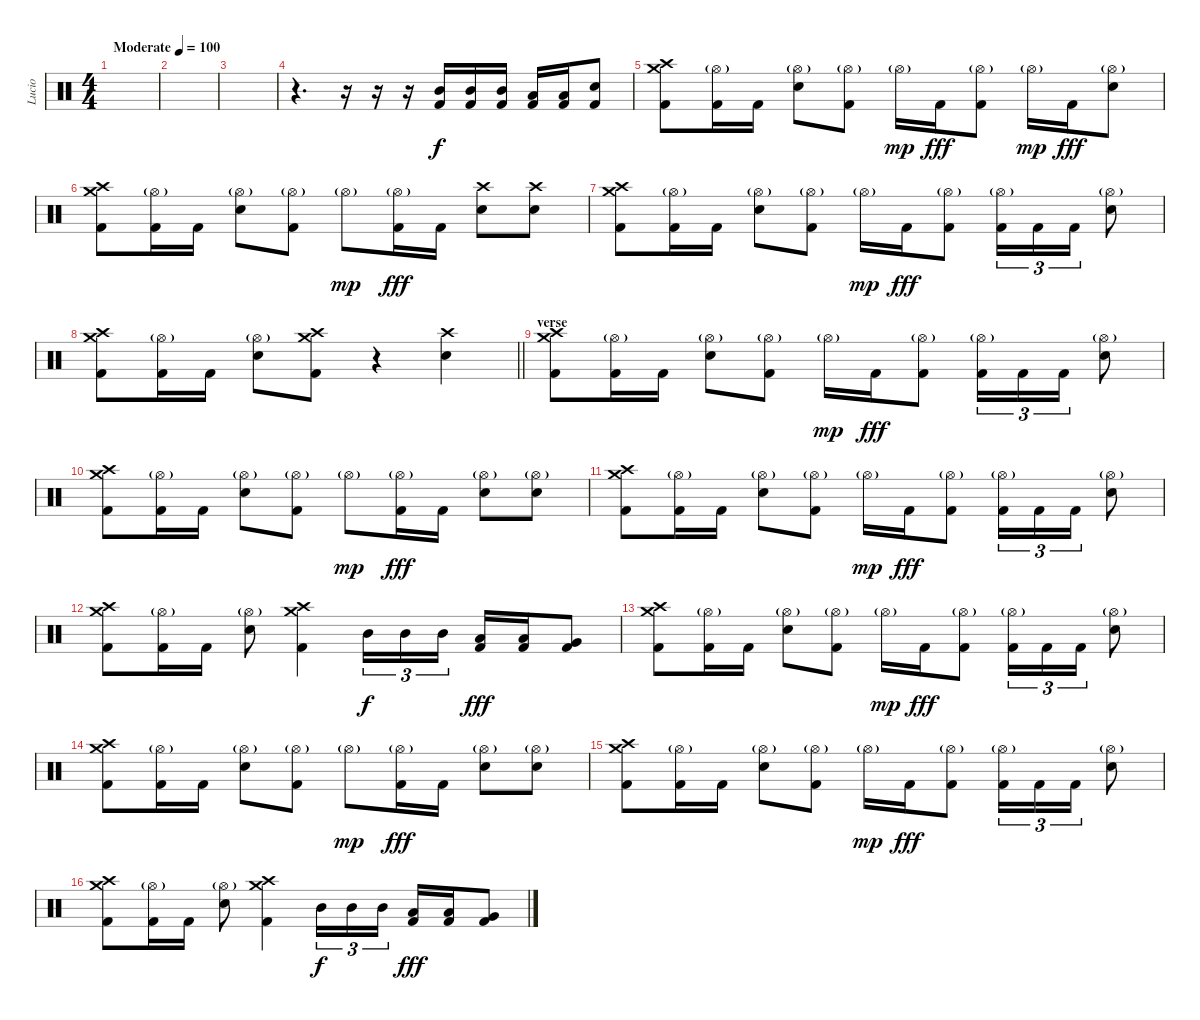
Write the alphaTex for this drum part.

\track ("Lucio" "Lucio") {instrument percussion}
\staff {score}
\articulation defaults
\ts (4 4)
\tempo (100 "Moderate")
\clef neutral
\ks c
|
|
|
r.4{d} r.16 r.16 r.16 ("Mid Tom (hit)" "Kick (hit) 2").16 ("Mid Tom (hit)" "Kick (hit) 2").16 ("Mid Tom (hit)" "Kick (hit) 2").16 ("Low Tom (hit)" "Kick (hit) 2").16 ("Low Tom (hit)" "Kick (hit) 2").16 ("Electric Snare (hit)" "Kick (hit) 2").8 |
("Crash medium (hit)" "Crash high (hit)" "Kick (hit) 2").8 ("Hi-Hat (open)"{g} "Kick (hit) 2").16 "Kick (hit) 2".16 ("Hi-Hat (open)"{g} "Electric Snare (hit)").8 ("Hi-Hat (open)"{g} "Kick (hit) 2").8 "Hi-Hat (open)"{g}.16{dy mp} "Kick (hit) 2".16{dy fff} ("Hi-Hat (open)"{g} "Kick (hit) 2").8 "Hi-Hat (open)"{g}.16{dy mp} "Kick (hit) 2".16{dy fff} ("Hi-Hat (open)"{g} "Electric Snare (hit)").8 |
("Crash medium (hit)" "Crash high (hit)" "Kick (hit) 2").8 ("Hi-Hat (open)"{g} "Kick (hit) 2").16 "Kick (hit) 2".16 ("Hi-Hat (open)"{g} "Electric Snare (hit)").8 ("Hi-Hat (open)"{g} "Kick (hit) 2").8 "Hi-Hat (open)"{g}.8{dy mp} ("Hi-Hat (open)"{g} "Kick (hit) 2").16{dy fff} "Kick (hit) 2".16 ("Crash high (hit)" "Electric Snare (hit)").8 ("Crash high (hit)" "Electric Snare (hit)").8 |
("Crash medium (hit)" "Crash high (hit)" "Kick (hit) 2").8 ("Hi-Hat (open)"{g} "Kick (hit) 2").16 "Kick (hit) 2".16 ("Hi-Hat (open)"{g} "Electric Snare (hit)").8 ("Hi-Hat (open)"{g} "Kick (hit) 2").8 "Hi-Hat (open)"{g}.16{dy mp} "Kick (hit) 2".16{dy fff} ("Hi-Hat (open)"{g} "Kick (hit) 2").8 ("Hi-Hat (open)"{g} "Kick (hit) 2").16{tu (3 2)} "Kick (hit) 2".16{tu (3 2)} "Kick (hit) 2".16{tu (3 2)} ("Hi-Hat (open)"{g} "Electric Snare (hit)").8 |
\barLineRight lightlight
("Crash medium (hit)" "Crash high (hit)" "Kick (hit) 2").8 ("Hi-Hat (open)"{g} "Kick (hit) 2").16 "Kick (hit) 2".16 ("Hi-Hat (open)"{g} "Electric Snare (hit)").8 ("Crash medium (hit)" "Crash high (hit)" "Kick (hit) 2").8 r.4 ("Crash high (hit)" "Electric Snare (hit)").4 |
\section ("" "verse")
("Crash medium (hit)" "Crash high (hit)" "Kick (hit) 2").8 ("Hi-Hat (open)"{g} "Kick (hit) 2").16 "Kick (hit) 2".16 ("Hi-Hat (open)"{g} "Electric Snare (hit)").8 ("Hi-Hat (open)"{g} "Kick (hit) 2").8 "Hi-Hat (open)"{g}.16{dy mp} "Kick (hit) 2".16{dy fff} ("Hi-Hat (open)"{g} "Kick (hit) 2").8 ("Hi-Hat (open)"{g} "Kick (hit) 2").16{tu (3 2)} "Kick (hit) 2".16{tu (3 2)} "Kick (hit) 2".16{tu (3 2)} ("Hi-Hat (open)"{g} "Electric Snare (hit)").8 |
("Crash medium (hit)" "Crash high (hit)" "Kick (hit) 2").8 ("Hi-Hat (open)"{g} "Kick (hit) 2").16 "Kick (hit) 2".16 ("Hi-Hat (open)"{g} "Electric Snare (hit)").8 ("Hi-Hat (open)"{g} "Kick (hit) 2").8 "Hi-Hat (open)"{g}.8{dy mp} ("Hi-Hat (open)"{g} "Kick (hit) 2").16{dy fff} "Kick (hit) 2".16 ("Hi-Hat (open)"{g} "Electric Snare (hit)").8 ("Hi-Hat (open)"{g} "Electric Snare (hit)").8 |
("Crash medium (hit)" "Crash high (hit)" "Kick (hit) 2").8 ("Hi-Hat (open)"{g} "Kick (hit) 2").16 "Kick (hit) 2".16 ("Hi-Hat (open)"{g} "Electric Snare (hit)").8 ("Hi-Hat (open)"{g} "Kick (hit) 2").8 "Hi-Hat (open)"{g}.16{dy mp} "Kick (hit) 2".16{dy fff} ("Hi-Hat (open)"{g} "Kick (hit) 2").8 ("Hi-Hat (open)"{g} "Kick (hit) 2").16{tu (3 2)} "Kick (hit) 2".16{tu (3 2)} "Kick (hit) 2".16{tu (3 2)} ("Hi-Hat (open)"{g} "Electric Snare (hit)").8 |
("Crash medium (hit)" "Crash high (hit)" "Kick (hit) 2").8 ("Hi-Hat (open)"{g} "Kick (hit) 2").16 "Kick (hit) 2".16 ("Hi-Hat (open)"{g} "Electric Snare (hit)").8 ("Crash medium (hit)" "Crash high (hit)" "Kick (hit) 2").4 "Mid Tom (hit)".16{tu (3 2) dy f} "Mid Tom (hit)".16{tu (3 2)} "Mid Tom (hit)".16{tu (3 2)} ("Low Tom (hit)" "Kick (hit) 2").16{dy fff} ("Low Tom (hit)" "Kick (hit) 2").16 ("Very Low Tom (hit)" "Kick (hit) 2").8 |
("Crash medium (hit)" "Crash high (hit)" "Kick (hit) 2").8 ("Hi-Hat (open)"{g} "Kick (hit) 2").16 "Kick (hit) 2".16 ("Hi-Hat (open)"{g} "Electric Snare (hit)").8 ("Hi-Hat (open)"{g} "Kick (hit) 2").8 "Hi-Hat (open)"{g}.16{dy mp} "Kick (hit) 2".16{dy fff} ("Hi-Hat (open)"{g} "Kick (hit) 2").8 ("Hi-Hat (open)"{g} "Kick (hit) 2").16{tu (3 2)} "Kick (hit) 2".16{tu (3 2)} "Kick (hit) 2".16{tu (3 2)} ("Hi-Hat (open)"{g} "Electric Snare (hit)").8 |
("Crash medium (hit)" "Crash high (hit)" "Kick (hit) 2").8 ("Hi-Hat (open)"{g} "Kick (hit) 2").16 "Kick (hit) 2".16 ("Hi-Hat (open)"{g} "Electric Snare (hit)").8 ("Hi-Hat (open)"{g} "Kick (hit) 2").8 "Hi-Hat (open)"{g}.8{dy mp} ("Hi-Hat (open)"{g} "Kick (hit) 2").16{dy fff} "Kick (hit) 2".16 ("Hi-Hat (open)"{g} "Electric Snare (hit)").8 ("Hi-Hat (open)"{g} "Electric Snare (hit)").8 |
("Crash medium (hit)" "Crash high (hit)" "Kick (hit) 2").8 ("Hi-Hat (open)"{g} "Kick (hit) 2").16 "Kick (hit) 2".16 ("Hi-Hat (open)"{g} "Electric Snare (hit)").8 ("Hi-Hat (open)"{g} "Kick (hit) 2").8 "Hi-Hat (open)"{g}.16{dy mp} "Kick (hit) 2".16{dy fff} ("Hi-Hat (open)"{g} "Kick (hit) 2").8 ("Hi-Hat (open)"{g} "Kick (hit) 2").16{tu (3 2)} "Kick (hit) 2".16{tu (3 2)} "Kick (hit) 2".16{tu (3 2)} ("Hi-Hat (open)"{g} "Electric Snare (hit)").8 |
("Crash medium (hit)" "Crash high (hit)" "Kick (hit) 2").8 ("Hi-Hat (open)"{g} "Kick (hit) 2").16 "Kick (hit) 2".16 ("Hi-Hat (open)"{g} "Electric Snare (hit)").8 ("Crash medium (hit)" "Crash high (hit)" "Kick (hit) 2").4 "Mid Tom (hit)".16{tu (3 2) dy f} "Mid Tom (hit)".16{tu (3 2)} "Mid Tom (hit)".16{tu (3 2)} ("Low Tom (hit)" "Kick (hit) 2").16{dy fff} ("Low Tom (hit)" "Kick (hit) 2").16 ("Very Low Tom (hit)" "Kick (hit) 2").8
